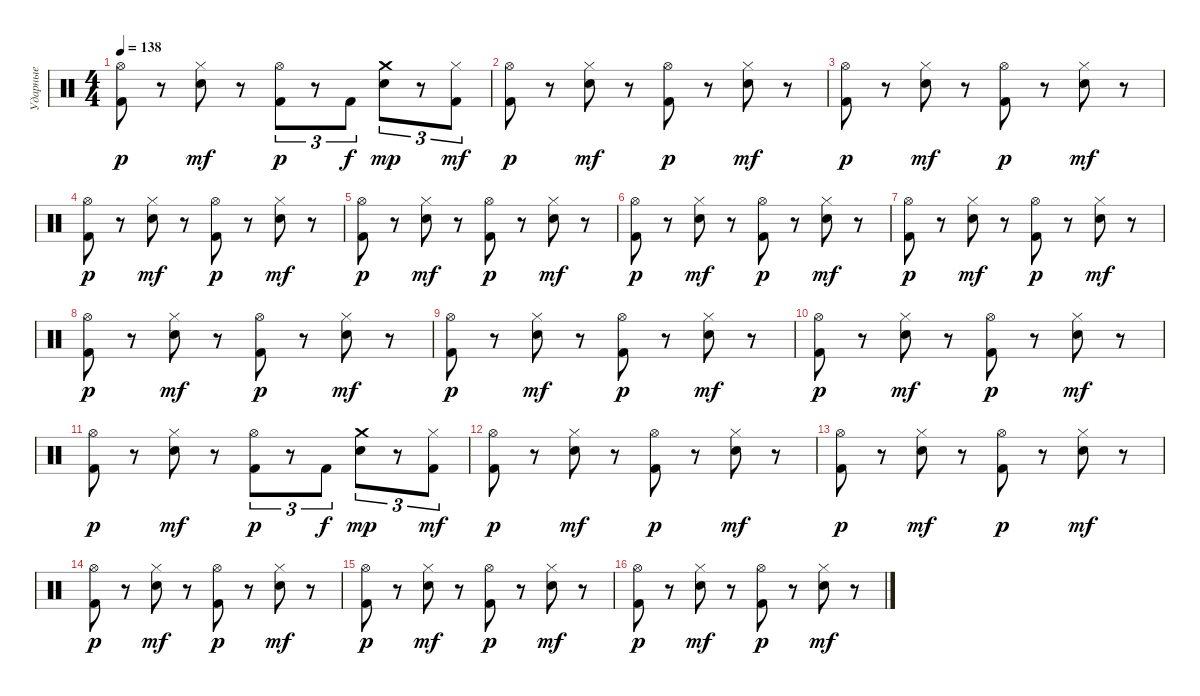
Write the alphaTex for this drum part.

\track ("Ударные" "Ударные") {instrument percussion}
\staff {score}
\articulation defaults
\ts (4 4)
\tempo 138
\clef neutral
\ks c
("Hi-Hat (open)" "Kick (hit) 2").8{dy p} r.8 ("Hi-Hat (closed)" "Snare (hit) 2").8{dy mf} r.8 ("Hi-Hat (open)" "Kick (hit) 2").8{tu (3 2) dy p} r.8{tu (3 2)} "Kick (hit) 2".8{tu (3 2) dy f} ("Crash medium (hit)" "Snare (hit) 2").8{tu (3 2) dy mp} r.8{tu (3 2)} ("Hi-Hat (closed)" "Kick (hit) 2").8{tu (3 2) dy mf} |
("Hi-Hat (open)" "Kick (hit) 2").8{dy p} r.8 ("Hi-Hat (closed)" "Snare (hit) 2").8{dy mf} r.8 ("Hi-Hat (open)" "Kick (hit) 2").8{dy p} r.8 ("Hi-Hat (closed)" "Snare (hit) 2").8{dy mf} r.8 |
("Hi-Hat (open)" "Kick (hit) 2").8{dy p} r.8 ("Hi-Hat (closed)" "Snare (hit) 2").8{dy mf} r.8 ("Hi-Hat (open)" "Kick (hit) 2").8{dy p} r.8 ("Hi-Hat (closed)" "Snare (hit) 2").8{dy mf} r.8 |
("Hi-Hat (open)" "Kick (hit) 2").8{dy p} r.8 ("Hi-Hat (closed)" "Snare (hit) 2").8{dy mf} r.8 ("Hi-Hat (open)" "Kick (hit) 2").8{dy p} r.8 ("Hi-Hat (closed)" "Snare (hit) 2").8{dy mf} r.8 |
("Hi-Hat (open)" "Kick (hit) 2").8{dy p} r.8 ("Hi-Hat (closed)" "Snare (hit) 2").8{dy mf} r.8 ("Hi-Hat (open)" "Kick (hit) 2").8{dy p} r.8 ("Hi-Hat (closed)" "Snare (hit) 2").8{dy mf} r.8 |
("Hi-Hat (open)" "Kick (hit) 2").8{dy p} r.8 ("Hi-Hat (closed)" "Snare (hit) 2").8{dy mf} r.8 ("Hi-Hat (open)" "Kick (hit) 2").8{dy p} r.8 ("Hi-Hat (closed)" "Snare (hit) 2").8{dy mf} r.8 |
("Hi-Hat (open)" "Kick (hit) 2").8{dy p} r.8 ("Hi-Hat (closed)" "Snare (hit) 2").8{dy mf} r.8 ("Hi-Hat (open)" "Kick (hit) 2").8{dy p} r.8 ("Hi-Hat (closed)" "Snare (hit) 2").8{dy mf} r.8 |
("Hi-Hat (open)" "Kick (hit) 2").8{dy p} r.8 ("Hi-Hat (closed)" "Snare (hit) 2").8{dy mf} r.8 ("Hi-Hat (open)" "Kick (hit) 2").8{dy p} r.8 ("Hi-Hat (closed)" "Snare (hit) 2").8{dy mf} r.8 |
("Hi-Hat (open)" "Kick (hit) 2").8{dy p} r.8 ("Hi-Hat (closed)" "Snare (hit) 2").8{dy mf} r.8 ("Hi-Hat (open)" "Kick (hit) 2").8{dy p} r.8 ("Hi-Hat (closed)" "Snare (hit) 2").8{dy mf} r.8 |
("Hi-Hat (open)" "Kick (hit) 2").8{dy p} r.8 ("Hi-Hat (closed)" "Snare (hit) 2").8{dy mf} r.8 ("Hi-Hat (open)" "Kick (hit) 2").8{dy p} r.8 ("Hi-Hat (closed)" "Snare (hit) 2").8{dy mf} r.8 |
("Hi-Hat (open)" "Kick (hit) 2").8{dy p} r.8 ("Hi-Hat (closed)" "Snare (hit) 2").8{dy mf} r.8 ("Hi-Hat (open)" "Kick (hit) 2").8{tu (3 2) dy p} r.8{tu (3 2)} "Kick (hit) 2".8{tu (3 2) dy f} ("Crash medium (hit)" "Snare (hit) 2").8{tu (3 2) dy mp} r.8{tu (3 2)} ("Hi-Hat (closed)" "Kick (hit) 2").8{tu (3 2) dy mf} |
("Hi-Hat (open)" "Kick (hit) 2").8{dy p} r.8 ("Hi-Hat (closed)" "Snare (hit) 2").8{dy mf} r.8 ("Hi-Hat (open)" "Kick (hit) 2").8{dy p} r.8 ("Hi-Hat (closed)" "Snare (hit) 2").8{dy mf} r.8 |
("Hi-Hat (open)" "Kick (hit) 2").8{dy p} r.8 ("Hi-Hat (closed)" "Snare (hit) 2").8{dy mf} r.8 ("Hi-Hat (open)" "Kick (hit) 2").8{dy p} r.8 ("Hi-Hat (closed)" "Snare (hit) 2").8{dy mf} r.8 |
("Hi-Hat (open)" "Kick (hit) 2").8{dy p} r.8 ("Hi-Hat (closed)" "Snare (hit) 2").8{dy mf} r.8 ("Hi-Hat (open)" "Kick (hit) 2").8{dy p} r.8 ("Hi-Hat (closed)" "Snare (hit) 2").8{dy mf} r.8 |
("Hi-Hat (open)" "Kick (hit) 2").8{dy p} r.8 ("Hi-Hat (closed)" "Snare (hit) 2").8{dy mf} r.8 ("Hi-Hat (open)" "Kick (hit) 2").8{dy p} r.8 ("Hi-Hat (closed)" "Snare (hit) 2").8{dy mf} r.8 |
("Hi-Hat (open)" "Kick (hit) 2").8{dy p} r.8 ("Hi-Hat (closed)" "Snare (hit) 2").8{dy mf} r.8 ("Hi-Hat (open)" "Kick (hit) 2").8{dy p} r.8 ("Hi-Hat (closed)" "Snare (hit) 2").8{dy mf} r.8
